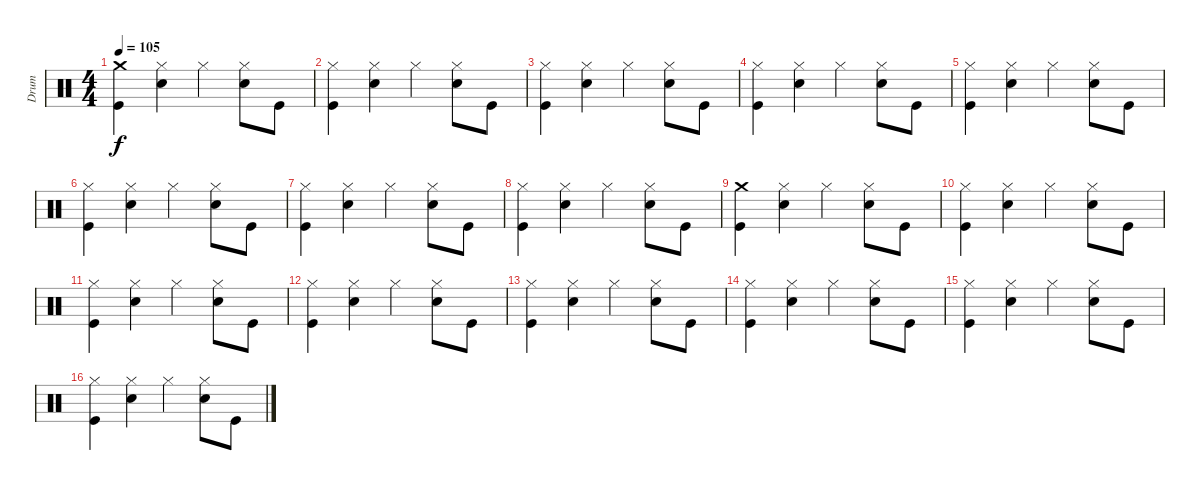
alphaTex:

\track ("Drum" "Drum") {instrument percussion}
\staff {score}
\articulation defaults
\ts (4 4)
\tempo 105
\clef neutral
\ks c
("Crash medium (hit)" "Kick (hit)").4{dy f} ("Hi-Hat (closed)" "Snare (hit) 2").4 "Hi-Hat (closed)".4 ("Hi-Hat (closed)" "Snare (hit) 2").8 "Kick (hit)".8 |
("Hi-Hat (closed)" "Kick (hit)").4 ("Hi-Hat (closed)" "Snare (hit) 2").4 "Hi-Hat (closed)".4 ("Hi-Hat (closed)" "Snare (hit) 2").8 "Kick (hit)".8 |
("Hi-Hat (closed)" "Kick (hit)").4 ("Hi-Hat (closed)" "Snare (hit) 2").4 "Hi-Hat (closed)".4 ("Hi-Hat (closed)" "Snare (hit) 2").8 "Kick (hit)".8 |
("Hi-Hat (closed)" "Kick (hit)").4 ("Hi-Hat (closed)" "Snare (hit) 2").4 "Hi-Hat (closed)".4 ("Hi-Hat (closed)" "Snare (hit) 2").8 "Kick (hit)".8 |
("Hi-Hat (closed)" "Kick (hit)").4 ("Hi-Hat (closed)" "Snare (hit) 2").4 "Hi-Hat (closed)".4 ("Hi-Hat (closed)" "Snare (hit) 2").8 "Kick (hit)".8 |
("Hi-Hat (closed)" "Kick (hit)").4 ("Hi-Hat (closed)" "Snare (hit) 2").4 "Hi-Hat (closed)".4 ("Hi-Hat (closed)" "Snare (hit) 2").8 "Kick (hit)".8 |
("Hi-Hat (closed)" "Kick (hit)").4 ("Hi-Hat (closed)" "Snare (hit) 2").4 "Hi-Hat (closed)".4 ("Hi-Hat (closed)" "Snare (hit) 2").8 "Kick (hit)".8 |
("Hi-Hat (closed)" "Kick (hit)").4 ("Hi-Hat (closed)" "Snare (hit) 2").4 "Hi-Hat (closed)".4 ("Hi-Hat (closed)" "Snare (hit) 2").8 "Kick (hit)".8 |
("Crash medium (hit)" "Kick (hit)").4 ("Hi-Hat (closed)" "Snare (hit) 2").4 "Hi-Hat (closed)".4 ("Hi-Hat (closed)" "Snare (hit) 2").8 "Kick (hit)".8 |
("Hi-Hat (closed)" "Kick (hit)").4 ("Hi-Hat (closed)" "Snare (hit) 2").4 "Hi-Hat (closed)".4 ("Hi-Hat (closed)" "Snare (hit) 2").8 "Kick (hit)".8 |
("Hi-Hat (closed)" "Kick (hit)").4 ("Hi-Hat (closed)" "Snare (hit) 2").4 "Hi-Hat (closed)".4 ("Hi-Hat (closed)" "Snare (hit) 2").8 "Kick (hit)".8 |
("Hi-Hat (closed)" "Kick (hit)").4 ("Hi-Hat (closed)" "Snare (hit) 2").4 "Hi-Hat (closed)".4 ("Hi-Hat (closed)" "Snare (hit) 2").8 "Kick (hit)".8 |
("Hi-Hat (closed)" "Kick (hit)").4 ("Hi-Hat (closed)" "Snare (hit) 2").4 "Hi-Hat (closed)".4 ("Hi-Hat (closed)" "Snare (hit) 2").8 "Kick (hit)".8 |
("Hi-Hat (closed)" "Kick (hit)").4 ("Hi-Hat (closed)" "Snare (hit) 2").4 "Hi-Hat (closed)".4 ("Hi-Hat (closed)" "Snare (hit) 2").8 "Kick (hit)".8 |
("Hi-Hat (closed)" "Kick (hit)").4 ("Hi-Hat (closed)" "Snare (hit) 2").4 "Hi-Hat (closed)".4 ("Hi-Hat (closed)" "Snare (hit) 2").8 "Kick (hit)".8 |
("Hi-Hat (closed)" "Kick (hit)").4 ("Hi-Hat (closed)" "Snare (hit) 2").4 "Hi-Hat (closed)".4 ("Hi-Hat (closed)" "Snare (hit) 2").8 "Kick (hit)".8
